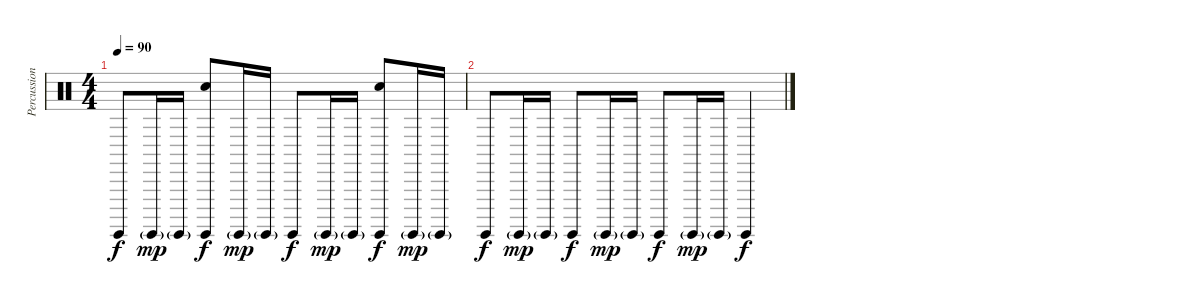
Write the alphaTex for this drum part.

\track ("Percussion" "Percussion") {instrument percussion}
\staff {score}
\articulation defaults
\ts (4 4)
\tempo 90
\clef neutral
\ks c "Surdo (hit)".8{dy f} "Surdo (hit)"{g}.16{dy mp} "Surdo (hit)"{g}.16
("Surdo (hit)" "Hand Clap (hit)").8{dy f} "Surdo (hit)"{g}.16{dy mp} "Surdo (hit)"{g}.16 "Surdo (hit)".8{dy f} "Surdo (hit)"{g}.16{dy mp} "Surdo (hit)"{g}.16 ("Surdo (hit)" "Hand Clap (hit)").8{dy f} "Surdo (hit)"{g}.16{dy mp} "Surdo (hit)"{g}.16 |
"Surdo (hit)".8{dy f} "Surdo (hit)"{g}.16{dy mp} "Surdo (hit)"{g}.16 "Surdo (hit)".8{dy f} "Surdo (hit)"{g}.16{dy mp} "Surdo (hit)"{g}.16 "Surdo (hit)".8{dy f} "Surdo (hit)"{g}.16{dy mp} "Surdo (hit)"{g}.16 "Surdo (hit)".4{dy f}
